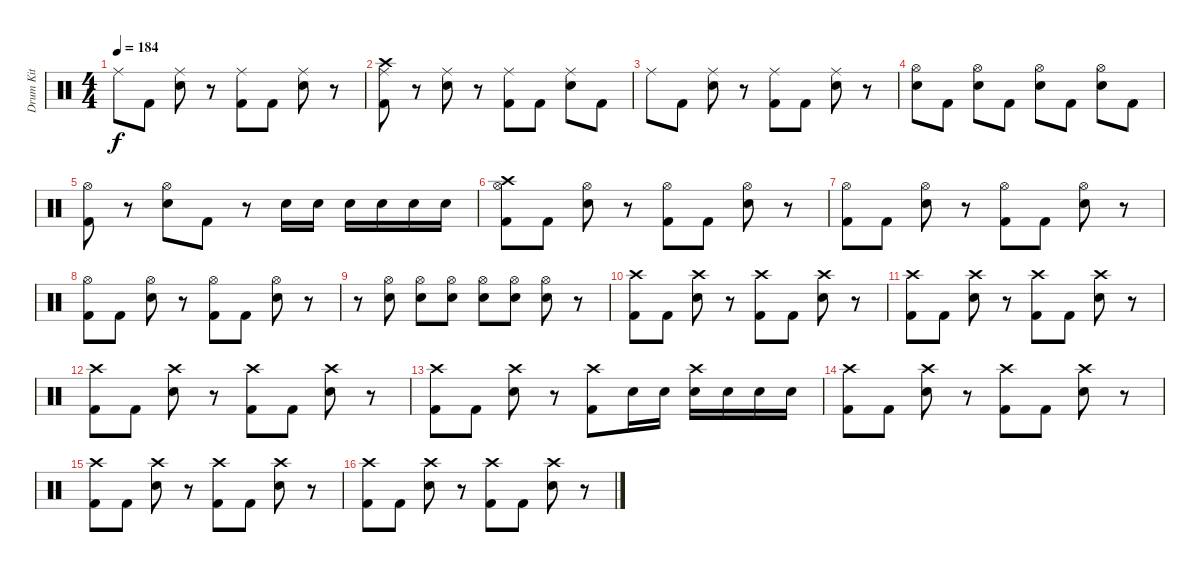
\track ("Drum Kit" "Drum Kit") {instrument percussion}
\staff {score}
\articulation defaults
\ts (4 4)
\tempo 184
\clef neutral
\ks c "Ride (middle)".8{dy f} "Kick (hit) 2".8
("Ride (middle)" "Snare (hit) 2").8 r.8 ("Ride (middle)" "Kick (hit) 2").8 "Kick (hit) 2".8 ("Ride (middle)" "Snare (hit) 2").8 r.8 |
("Crash high (hit)" "Ride (middle)" "Kick (hit) 2").8 r.8 ("Ride (middle)" "Snare (hit) 2").8 r.8 ("Ride (middle)" "Kick (hit) 2").8 "Kick (hit) 2".8 ("Ride (middle)" "Snare (hit) 2").8 "Kick (hit) 2".8 |
"Ride (middle)".8 "Kick (hit) 2".8 ("Ride (middle)" "Snare (hit) 2").8 r.8 ("Ride (middle)" "Kick (hit) 2").8 "Kick (hit) 2".8 ("Ride (middle)" "Snare (hit) 2").8 r.8 |
("Hi-Hat (open)" "Snare (hit) 2").8 "Kick (hit) 2".8 ("Hi-Hat (open)" "Snare (hit) 2").8 "Kick (hit) 2".8 ("Hi-Hat (open)" "Snare (hit) 2").8 "Kick (hit) 2".8 ("Hi-Hat (open)" "Snare (hit) 2").8 "Kick (hit) 2".8 |
("Hi-Hat (open)" "Kick (hit) 2").8 r.8 ("Hi-Hat (open)" "Snare (hit) 2").8 "Kick (hit) 2".8 r.8 "Snare (hit) 2".16 "Snare (hit) 2".16 "Snare (hit) 2".16 "Snare (hit) 2".16 "Snare (hit) 2".16 "Snare (hit) 2".16 |
("Crash high (hit)" "Hi-Hat (open)" "Kick (hit) 2").8 "Kick (hit) 2".8 ("Hi-Hat (open)" "Snare (hit) 2").8 r.8 ("Hi-Hat (open)" "Kick (hit) 2").8 "Kick (hit) 2".8 ("Hi-Hat (open)" "Snare (hit) 2").8 r.8 |
("Hi-Hat (open)" "Kick (hit) 2").8 "Kick (hit) 2".8 ("Hi-Hat (open)" "Snare (hit) 2").8 r.8 ("Hi-Hat (open)" "Kick (hit) 2").8 "Kick (hit) 2".8 ("Hi-Hat (open)" "Snare (hit) 2").8 r.8 |
("Hi-Hat (open)" "Kick (hit) 2").8 "Kick (hit) 2".8 ("Hi-Hat (open)" "Snare (hit) 2").8 r.8 ("Hi-Hat (open)" "Kick (hit) 2").8 "Kick (hit) 2".8 ("Hi-Hat (open)" "Snare (hit) 2").8 r.8 |
r.8 ("Hi-Hat (open)" "Snare (hit) 2").8 ("Hi-Hat (open)" "Snare (hit) 2").8 ("Hi-Hat (open)" "Snare (hit) 2").8 ("Hi-Hat (open)" "Snare (hit) 2").8 ("Hi-Hat (open)" "Snare (hit) 2").8 ("Hi-Hat (open)" "Snare (hit) 2").8 r.8 |
("Crash high (hit)" "Kick (hit) 2").8 "Kick (hit) 2".8 ("Crash high (hit)" "Snare (hit) 2").8 r.8 ("Crash high (hit)" "Kick (hit) 2").8 "Kick (hit) 2".8 ("Crash high (hit)" "Snare (hit) 2").8 r.8 |
("Crash high (hit)" "Kick (hit) 2").8 "Kick (hit) 2".8 ("Crash high (hit)" "Snare (hit) 2").8 r.8 ("Crash high (hit)" "Kick (hit) 2").8 "Kick (hit) 2".8 ("Crash high (hit)" "Snare (hit) 2").8 r.8 |
("Crash high (hit)" "Kick (hit) 2").8 "Kick (hit) 2".8 ("Crash high (hit)" "Snare (hit) 2").8 r.8 ("Crash high (hit)" "Kick (hit) 2").8 "Kick (hit) 2".8 ("Crash high (hit)" "Snare (hit) 2").8 r.8 |
("Crash high (hit)" "Kick (hit) 2").8 "Kick (hit) 2".8 ("Crash high (hit)" "Snare (hit) 2").8 r.8 ("Crash high (hit)" "Kick (hit) 2").8 "Snare (hit) 2".16 "Snare (hit) 2".16 ("Crash high (hit)" "Snare (hit) 2").16 "Snare (hit) 2".16 "Snare (hit) 2".16 "Snare (hit) 2".16 |
("Crash high (hit)" "Kick (hit) 2").8 "Kick (hit) 2".8 ("Crash high (hit)" "Snare (hit) 2").8 r.8 ("Crash high (hit)" "Kick (hit) 2").8 "Kick (hit) 2".8 ("Crash high (hit)" "Snare (hit) 2").8 r.8 |
("Crash high (hit)" "Kick (hit) 2").8 "Kick (hit) 2".8 ("Crash high (hit)" "Snare (hit) 2").8 r.8 ("Crash high (hit)" "Kick (hit) 2").8 "Kick (hit) 2".8 ("Crash high (hit)" "Snare (hit) 2").8 r.8 |
("Crash high (hit)" "Kick (hit) 2").8 "Kick (hit) 2".8 ("Crash high (hit)" "Snare (hit) 2").8 r.8 ("Crash high (hit)" "Kick (hit) 2").8 "Kick (hit) 2".8 ("Crash high (hit)" "Snare (hit) 2").8 r.8
